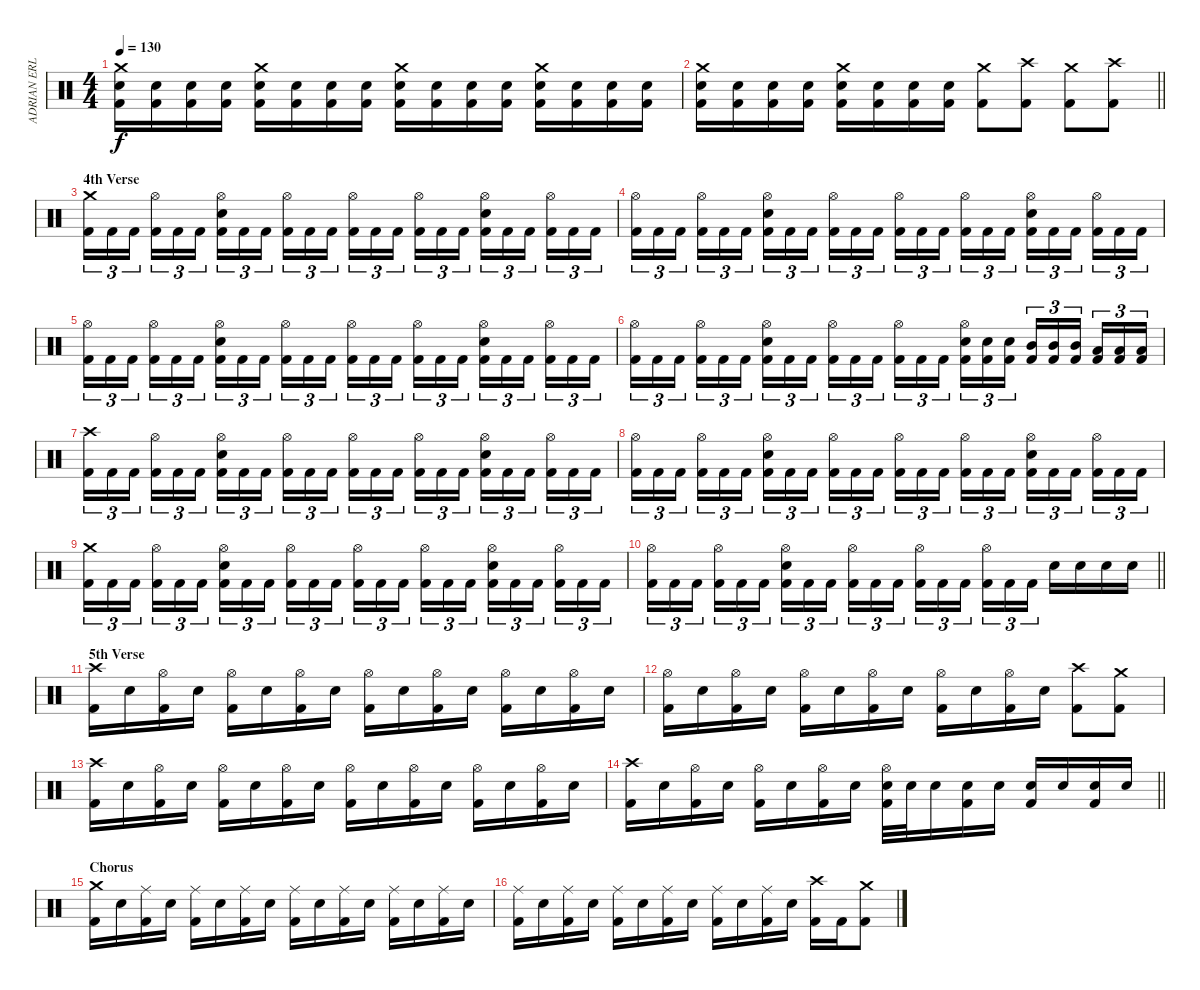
\track ("ADRIAN ERLANDSSON" "ADRIAN ERL") {instrument percussion}
\staff {score}
\articulation defaults
\ts (4 4)
\tempo 130
\clef neutral
\ks c
("Kick (hit) 2" "Electric Snare (hit)" "Crash medium (hit)").16{dy f} ("Kick (hit) 2" "Electric Snare (hit)").16 ("Kick (hit) 2" "Electric Snare (hit)").16 ("Kick (hit) 2" "Electric Snare (hit)").16 ("Kick (hit) 2" "Electric Snare (hit)" "Crash medium (hit)").16 ("Kick (hit) 2" "Electric Snare (hit)").16 ("Kick (hit) 2" "Electric Snare (hit)").16 ("Kick (hit) 2" "Electric Snare (hit)").16 ("Kick (hit) 2" "Electric Snare (hit)" "Crash medium (hit)").16 ("Kick (hit) 2" "Electric Snare (hit)").16 ("Kick (hit) 2" "Electric Snare (hit)").16 ("Kick (hit) 2" "Electric Snare (hit)").16 ("Kick (hit) 2" "Electric Snare (hit)" "Crash medium (hit)").16 ("Kick (hit) 2" "Electric Snare (hit)").16 ("Kick (hit) 2" "Electric Snare (hit)").16 ("Kick (hit) 2" "Electric Snare (hit)").16 |
\barLineRight lightlight
("Kick (hit) 2" "Electric Snare (hit)" "Crash medium (hit)").16 ("Kick (hit) 2" "Electric Snare (hit)").16 ("Kick (hit) 2" "Electric Snare (hit)").16 ("Kick (hit) 2" "Electric Snare (hit)").16 ("Kick (hit) 2" "Electric Snare (hit)" "Crash medium (hit)").16 ("Kick (hit) 2" "Electric Snare (hit)").16 ("Kick (hit) 2" "Electric Snare (hit)").16 ("Kick (hit) 2" "Electric Snare (hit)").16 ("Kick (hit) 2" "Crash medium (hit)").8 ("Kick (hit) 2" "Crash high (hit)").8 ("Kick (hit) 2" "Crash medium (hit)").8 ("Kick (hit) 2" "Crash high (hit)").8 |
\section ("" "4th Verse")
("Kick (hit) 2" "Crash medium (hit)").16{tu (3 2)} "Kick (hit) 2".16{tu (3 2)} "Kick (hit) 2".16{tu (3 2) beam splitsecondary} ("Kick (hit) 2" "Hi-Hat (open)").16{tu (3 2)} "Kick (hit) 2".16{tu (3 2)} "Kick (hit) 2".16{tu (3 2)} ("Kick (hit) 2" "Electric Snare (hit)" "Hi-Hat (open)").16{tu (3 2)} "Kick (hit) 2".16{tu (3 2)} "Kick (hit) 2".16{tu (3 2) beam splitsecondary} ("Kick (hit) 2" "Hi-Hat (open)").16{tu (3 2)} "Kick (hit) 2".16{tu (3 2)} "Kick (hit) 2".16{tu (3 2)} ("Kick (hit) 2" "Hi-Hat (open)").16{tu (3 2)} "Kick (hit) 2".16{tu (3 2)} "Kick (hit) 2".16{tu (3 2) beam splitsecondary} ("Kick (hit) 2" "Hi-Hat (open)").16{tu (3 2)} "Kick (hit) 2".16{tu (3 2)} "Kick (hit) 2".16{tu (3 2)} ("Kick (hit) 2" "Electric Snare (hit)" "Hi-Hat (open)").16{tu (3 2)} "Kick (hit) 2".16{tu (3 2)} "Kick (hit) 2".16{tu (3 2) beam splitsecondary} ("Kick (hit) 2" "Hi-Hat (open)").16{tu (3 2)} "Kick (hit) 2".16{tu (3 2)} "Kick (hit) 2".16{tu (3 2)} |
("Kick (hit) 2" "Hi-Hat (open)").16{tu (3 2)} "Kick (hit) 2".16{tu (3 2)} "Kick (hit) 2".16{tu (3 2) beam splitsecondary} ("Kick (hit) 2" "Hi-Hat (open)").16{tu (3 2)} "Kick (hit) 2".16{tu (3 2)} "Kick (hit) 2".16{tu (3 2)} ("Kick (hit) 2" "Electric Snare (hit)" "Hi-Hat (open)").16{tu (3 2)} "Kick (hit) 2".16{tu (3 2)} "Kick (hit) 2".16{tu (3 2) beam splitsecondary} ("Kick (hit) 2" "Hi-Hat (open)").16{tu (3 2)} "Kick (hit) 2".16{tu (3 2)} "Kick (hit) 2".16{tu (3 2)} ("Kick (hit) 2" "Hi-Hat (open)").16{tu (3 2)} "Kick (hit) 2".16{tu (3 2)} "Kick (hit) 2".16{tu (3 2) beam splitsecondary} ("Kick (hit) 2" "Hi-Hat (open)").16{tu (3 2)} "Kick (hit) 2".16{tu (3 2)} "Kick (hit) 2".16{tu (3 2)} ("Kick (hit) 2" "Electric Snare (hit)" "Hi-Hat (open)").16{tu (3 2)} "Kick (hit) 2".16{tu (3 2)} "Kick (hit) 2".16{tu (3 2) beam splitsecondary} ("Kick (hit) 2" "Hi-Hat (open)").16{tu (3 2)} "Kick (hit) 2".16{tu (3 2)} "Kick (hit) 2".16{tu (3 2)} |
("Kick (hit) 2" "Hi-Hat (open)").16{tu (3 2)} "Kick (hit) 2".16{tu (3 2)} "Kick (hit) 2".16{tu (3 2) beam splitsecondary} ("Kick (hit) 2" "Hi-Hat (open)").16{tu (3 2)} "Kick (hit) 2".16{tu (3 2)} "Kick (hit) 2".16{tu (3 2)} ("Kick (hit) 2" "Electric Snare (hit)" "Hi-Hat (open)").16{tu (3 2)} "Kick (hit) 2".16{tu (3 2)} "Kick (hit) 2".16{tu (3 2) beam splitsecondary} ("Kick (hit) 2" "Hi-Hat (open)").16{tu (3 2)} "Kick (hit) 2".16{tu (3 2)} "Kick (hit) 2".16{tu (3 2)} ("Kick (hit) 2" "Hi-Hat (open)").16{tu (3 2)} "Kick (hit) 2".16{tu (3 2)} "Kick (hit) 2".16{tu (3 2) beam splitsecondary} ("Kick (hit) 2" "Hi-Hat (open)").16{tu (3 2)} "Kick (hit) 2".16{tu (3 2)} "Kick (hit) 2".16{tu (3 2)} ("Kick (hit) 2" "Electric Snare (hit)" "Hi-Hat (open)").16{tu (3 2)} "Kick (hit) 2".16{tu (3 2)} "Kick (hit) 2".16{tu (3 2) beam splitsecondary} ("Kick (hit) 2" "Hi-Hat (open)").16{tu (3 2)} "Kick (hit) 2".16{tu (3 2)} "Kick (hit) 2".16{tu (3 2)} |
("Kick (hit) 2" "Hi-Hat (open)").16{tu (3 2)} "Kick (hit) 2".16{tu (3 2)} "Kick (hit) 2".16{tu (3 2) beam splitsecondary} ("Kick (hit) 2" "Hi-Hat (open)").16{tu (3 2)} "Kick (hit) 2".16{tu (3 2)} "Kick (hit) 2".16{tu (3 2)} ("Kick (hit) 2" "Electric Snare (hit)" "Hi-Hat (open)").16{tu (3 2)} "Kick (hit) 2".16{tu (3 2)} "Kick (hit) 2".16{tu (3 2) beam splitsecondary} ("Kick (hit) 2" "Hi-Hat (open)").16{tu (3 2)} "Kick (hit) 2".16{tu (3 2)} "Kick (hit) 2".16{tu (3 2)} ("Kick (hit) 2" "Hi-Hat (open)").16{tu (3 2)} "Kick (hit) 2".16{tu (3 2)} "Kick (hit) 2".16{tu (3 2) beam splitsecondary} ("Kick (hit) 2" "Electric Snare (hit)" "Hi-Hat (open)").16{tu (3 2)} ("Kick (hit) 2" "Electric Snare (hit)").16{tu (3 2)} ("Kick (hit) 2" "Electric Snare (hit)").16{tu (3 2)} ("Kick (hit) 2" "Mid Tom (hit)").16{tu (3 2)} ("Kick (hit) 2" "Mid Tom (hit)").16{tu (3 2)} ("Kick (hit) 2" "Mid Tom (hit)").16{tu (3 2) beam splitsecondary} ("Kick (hit) 2" "Low Tom (hit)").16{tu (3 2)} ("Kick (hit) 2" "Low Tom (hit)").16{tu (3 2)} ("Kick (hit) 2" "Low Tom (hit)").16{tu (3 2)} |
("Kick (hit) 2" "Crash high (hit)").16{tu (3 2)} "Kick (hit) 2".16{tu (3 2)} "Kick (hit) 2".16{tu (3 2) beam splitsecondary} ("Kick (hit) 2" "Hi-Hat (open)").16{tu (3 2)} "Kick (hit) 2".16{tu (3 2)} "Kick (hit) 2".16{tu (3 2)} ("Kick (hit) 2" "Electric Snare (hit)" "Hi-Hat (open)").16{tu (3 2)} "Kick (hit) 2".16{tu (3 2)} "Kick (hit) 2".16{tu (3 2) beam splitsecondary} ("Kick (hit) 2" "Hi-Hat (open)").16{tu (3 2)} "Kick (hit) 2".16{tu (3 2)} "Kick (hit) 2".16{tu (3 2)} ("Kick (hit) 2" "Hi-Hat (open)").16{tu (3 2)} "Kick (hit) 2".16{tu (3 2)} "Kick (hit) 2".16{tu (3 2) beam splitsecondary} ("Kick (hit) 2" "Hi-Hat (open)").16{tu (3 2)} "Kick (hit) 2".16{tu (3 2)} "Kick (hit) 2".16{tu (3 2)} ("Kick (hit) 2" "Electric Snare (hit)" "Hi-Hat (open)").16{tu (3 2)} "Kick (hit) 2".16{tu (3 2)} "Kick (hit) 2".16{tu (3 2) beam splitsecondary} ("Kick (hit) 2" "Hi-Hat (open)").16{tu (3 2)} "Kick (hit) 2".16{tu (3 2)} "Kick (hit) 2".16{tu (3 2)} |
("Kick (hit) 2" "Hi-Hat (open)").16{tu (3 2)} "Kick (hit) 2".16{tu (3 2)} "Kick (hit) 2".16{tu (3 2) beam splitsecondary} ("Kick (hit) 2" "Hi-Hat (open)").16{tu (3 2)} "Kick (hit) 2".16{tu (3 2)} "Kick (hit) 2".16{tu (3 2)} ("Kick (hit) 2" "Electric Snare (hit)" "Hi-Hat (open)").16{tu (3 2)} "Kick (hit) 2".16{tu (3 2)} "Kick (hit) 2".16{tu (3 2) beam splitsecondary} ("Kick (hit) 2" "Hi-Hat (open)").16{tu (3 2)} "Kick (hit) 2".16{tu (3 2)} "Kick (hit) 2".16{tu (3 2)} ("Kick (hit) 2" "Hi-Hat (open)").16{tu (3 2)} "Kick (hit) 2".16{tu (3 2)} "Kick (hit) 2".16{tu (3 2) beam splitsecondary} ("Kick (hit) 2" "Hi-Hat (open)").16{tu (3 2)} "Kick (hit) 2".16{tu (3 2)} "Kick (hit) 2".16{tu (3 2)} ("Kick (hit) 2" "Electric Snare (hit)" "Hi-Hat (open)").16{tu (3 2)} "Kick (hit) 2".16{tu (3 2)} "Kick (hit) 2".16{tu (3 2) beam splitsecondary} ("Kick (hit) 2" "Hi-Hat (open)").16{tu (3 2)} "Kick (hit) 2".16{tu (3 2)} "Kick (hit) 2".16{tu (3 2)} |
("Kick (hit) 2" "Crash medium (hit)").16{tu (3 2)} "Kick (hit) 2".16{tu (3 2)} "Kick (hit) 2".16{tu (3 2) beam splitsecondary} ("Kick (hit) 2" "Hi-Hat (open)").16{tu (3 2)} "Kick (hit) 2".16{tu (3 2)} "Kick (hit) 2".16{tu (3 2)} ("Kick (hit) 2" "Electric Snare (hit)" "Hi-Hat (open)").16{tu (3 2)} "Kick (hit) 2".16{tu (3 2)} "Kick (hit) 2".16{tu (3 2) beam splitsecondary} ("Kick (hit) 2" "Hi-Hat (open)").16{tu (3 2)} "Kick (hit) 2".16{tu (3 2)} "Kick (hit) 2".16{tu (3 2)} ("Kick (hit) 2" "Hi-Hat (open)").16{tu (3 2)} "Kick (hit) 2".16{tu (3 2)} "Kick (hit) 2".16{tu (3 2) beam splitsecondary} ("Kick (hit) 2" "Hi-Hat (open)").16{tu (3 2)} "Kick (hit) 2".16{tu (3 2)} "Kick (hit) 2".16{tu (3 2)} ("Kick (hit) 2" "Electric Snare (hit)" "Hi-Hat (open)").16{tu (3 2)} "Kick (hit) 2".16{tu (3 2)} "Kick (hit) 2".16{tu (3 2) beam splitsecondary} ("Kick (hit) 2" "Hi-Hat (open)").16{tu (3 2)} "Kick (hit) 2".16{tu (3 2)} "Kick (hit) 2".16{tu (3 2)} |
\barLineRight lightlight
("Kick (hit) 2" "Hi-Hat (open)").16{tu (3 2)} "Kick (hit) 2".16{tu (3 2)} "Kick (hit) 2".16{tu (3 2) beam splitsecondary} ("Kick (hit) 2" "Hi-Hat (open)").16{tu (3 2)} "Kick (hit) 2".16{tu (3 2)} "Kick (hit) 2".16{tu (3 2)} ("Kick (hit) 2" "Electric Snare (hit)" "Hi-Hat (open)").16{tu (3 2)} "Kick (hit) 2".16{tu (3 2)} "Kick (hit) 2".16{tu (3 2) beam splitsecondary} ("Kick (hit) 2" "Hi-Hat (open)").16{tu (3 2)} "Kick (hit) 2".16{tu (3 2)} "Kick (hit) 2".16{tu (3 2)} ("Kick (hit) 2" "Hi-Hat (open)").16{tu (3 2)} "Kick (hit) 2".16{tu (3 2)} "Kick (hit) 2".16{tu (3 2) beam splitsecondary} ("Kick (hit) 2" "Hi-Hat (open)").16{tu (3 2)} "Kick (hit) 2".16{tu (3 2)} "Kick (hit) 2".16{tu (3 2)} "Electric Snare (hit)".16 "Electric Snare (hit)".16 "Electric Snare (hit)".16 "Electric Snare (hit)".16 |
\section ("" "5th Verse")
("Kick (hit) 2" "Crash high (hit)").16 "Electric Snare (hit)".16 ("Kick (hit) 2" "Hi-Hat (open)").16 "Electric Snare (hit)".16 ("Kick (hit) 2" "Hi-Hat (open)").16 "Electric Snare (hit)".16 ("Kick (hit) 2" "Hi-Hat (open)").16 "Electric Snare (hit)".16 ("Kick (hit) 2" "Hi-Hat (open)").16 "Electric Snare (hit)".16 ("Kick (hit) 2" "Hi-Hat (open)").16 "Electric Snare (hit)".16 ("Kick (hit) 2" "Hi-Hat (open)").16 "Electric Snare (hit)".16 ("Kick (hit) 2" "Hi-Hat (open)").16 "Electric Snare (hit)".16 |
("Kick (hit) 2" "Hi-Hat (open)").16 "Electric Snare (hit)".16 ("Kick (hit) 2" "Hi-Hat (open)").16 "Electric Snare (hit)".16 ("Kick (hit) 2" "Hi-Hat (open)").16 "Electric Snare (hit)".16 ("Kick (hit) 2" "Hi-Hat (open)").16 "Electric Snare (hit)".16 ("Kick (hit) 2" "Hi-Hat (open)").16 "Electric Snare (hit)".16 ("Kick (hit) 2" "Hi-Hat (open)").16 "Electric Snare (hit)".16 ("Kick (hit) 2" "Crash high (hit)").8 ("Kick (hit) 2" "Crash medium (hit)").8 |
("Kick (hit) 2" "Crash high (hit)").16 "Electric Snare (hit)".16 ("Kick (hit) 2" "Hi-Hat (open)").16 "Electric Snare (hit)".16 ("Kick (hit) 2" "Hi-Hat (open)").16 "Electric Snare (hit)".16 ("Kick (hit) 2" "Hi-Hat (open)").16 "Electric Snare (hit)".16 ("Kick (hit) 2" "Hi-Hat (open)").16 "Electric Snare (hit)".16 ("Kick (hit) 2" "Hi-Hat (open)").16 "Electric Snare (hit)".16 ("Kick (hit) 2" "Hi-Hat (open)").16 "Electric Snare (hit)".16 ("Kick (hit) 2" "Hi-Hat (open)").16 "Electric Snare (hit)".16 |
\barLineRight lightlight
("Kick (hit) 2" "Crash high (hit)").16 "Electric Snare (hit)".16 ("Kick (hit) 2" "Hi-Hat (open)").16 "Electric Snare (hit)".16 ("Kick (hit) 2" "Hi-Hat (open)").16 "Electric Snare (hit)".16 ("Kick (hit) 2" "Hi-Hat (open)").16 "Electric Snare (hit)".16 ("Kick (hit) 2" "Electric Snare (hit)" "Hi-Hat (open)").32 "Electric Snare (hit)".32 "Electric Snare (hit)".16 ("Kick (hit) 2" "Electric Snare (hit)").16 "Electric Snare (hit)".16 ("Kick (hit) 2" "Electric Snare (hit)").16 "Electric Snare (hit)".16 ("Kick (hit) 2" "Electric Snare (hit)").16 "Electric Snare (hit)".16 |
\section ("" "Chorus")
("Kick (hit) 2" "Crash medium (hit)").16 "Electric Snare (hit)".16 ("Kick (hit) 2" "Ride (middle)").16 "Electric Snare (hit)".16 ("Kick (hit) 2" "Ride (middle)").16 "Electric Snare (hit)".16 ("Kick (hit) 2" "Ride (middle)").16 "Electric Snare (hit)".16 ("Kick (hit) 2" "Ride (middle)").16 "Electric Snare (hit)".16 ("Kick (hit) 2" "Ride (middle)").16 "Electric Snare (hit)".16 ("Kick (hit) 2" "Ride (middle)").16 "Electric Snare (hit)".16 ("Kick (hit) 2" "Ride (middle)").16 "Electric Snare (hit)".16 |
("Kick (hit) 2" "Ride (middle)").16 "Electric Snare (hit)".16 ("Kick (hit) 2" "Ride (middle)").16 "Electric Snare (hit)".16 ("Kick (hit) 2" "Ride (middle)").16 "Electric Snare (hit)".16 ("Kick (hit) 2" "Ride (middle)").16 "Electric Snare (hit)".16 ("Kick (hit) 2" "Ride (middle)").16 "Electric Snare (hit)".16 ("Kick (hit) 2" "Ride (middle)").16 "Electric Snare (hit)".16 ("Kick (hit) 2" "Crash high (hit)").16 "Kick (hit) 2".16 ("Kick (hit) 2" "Crash medium (hit)").8
